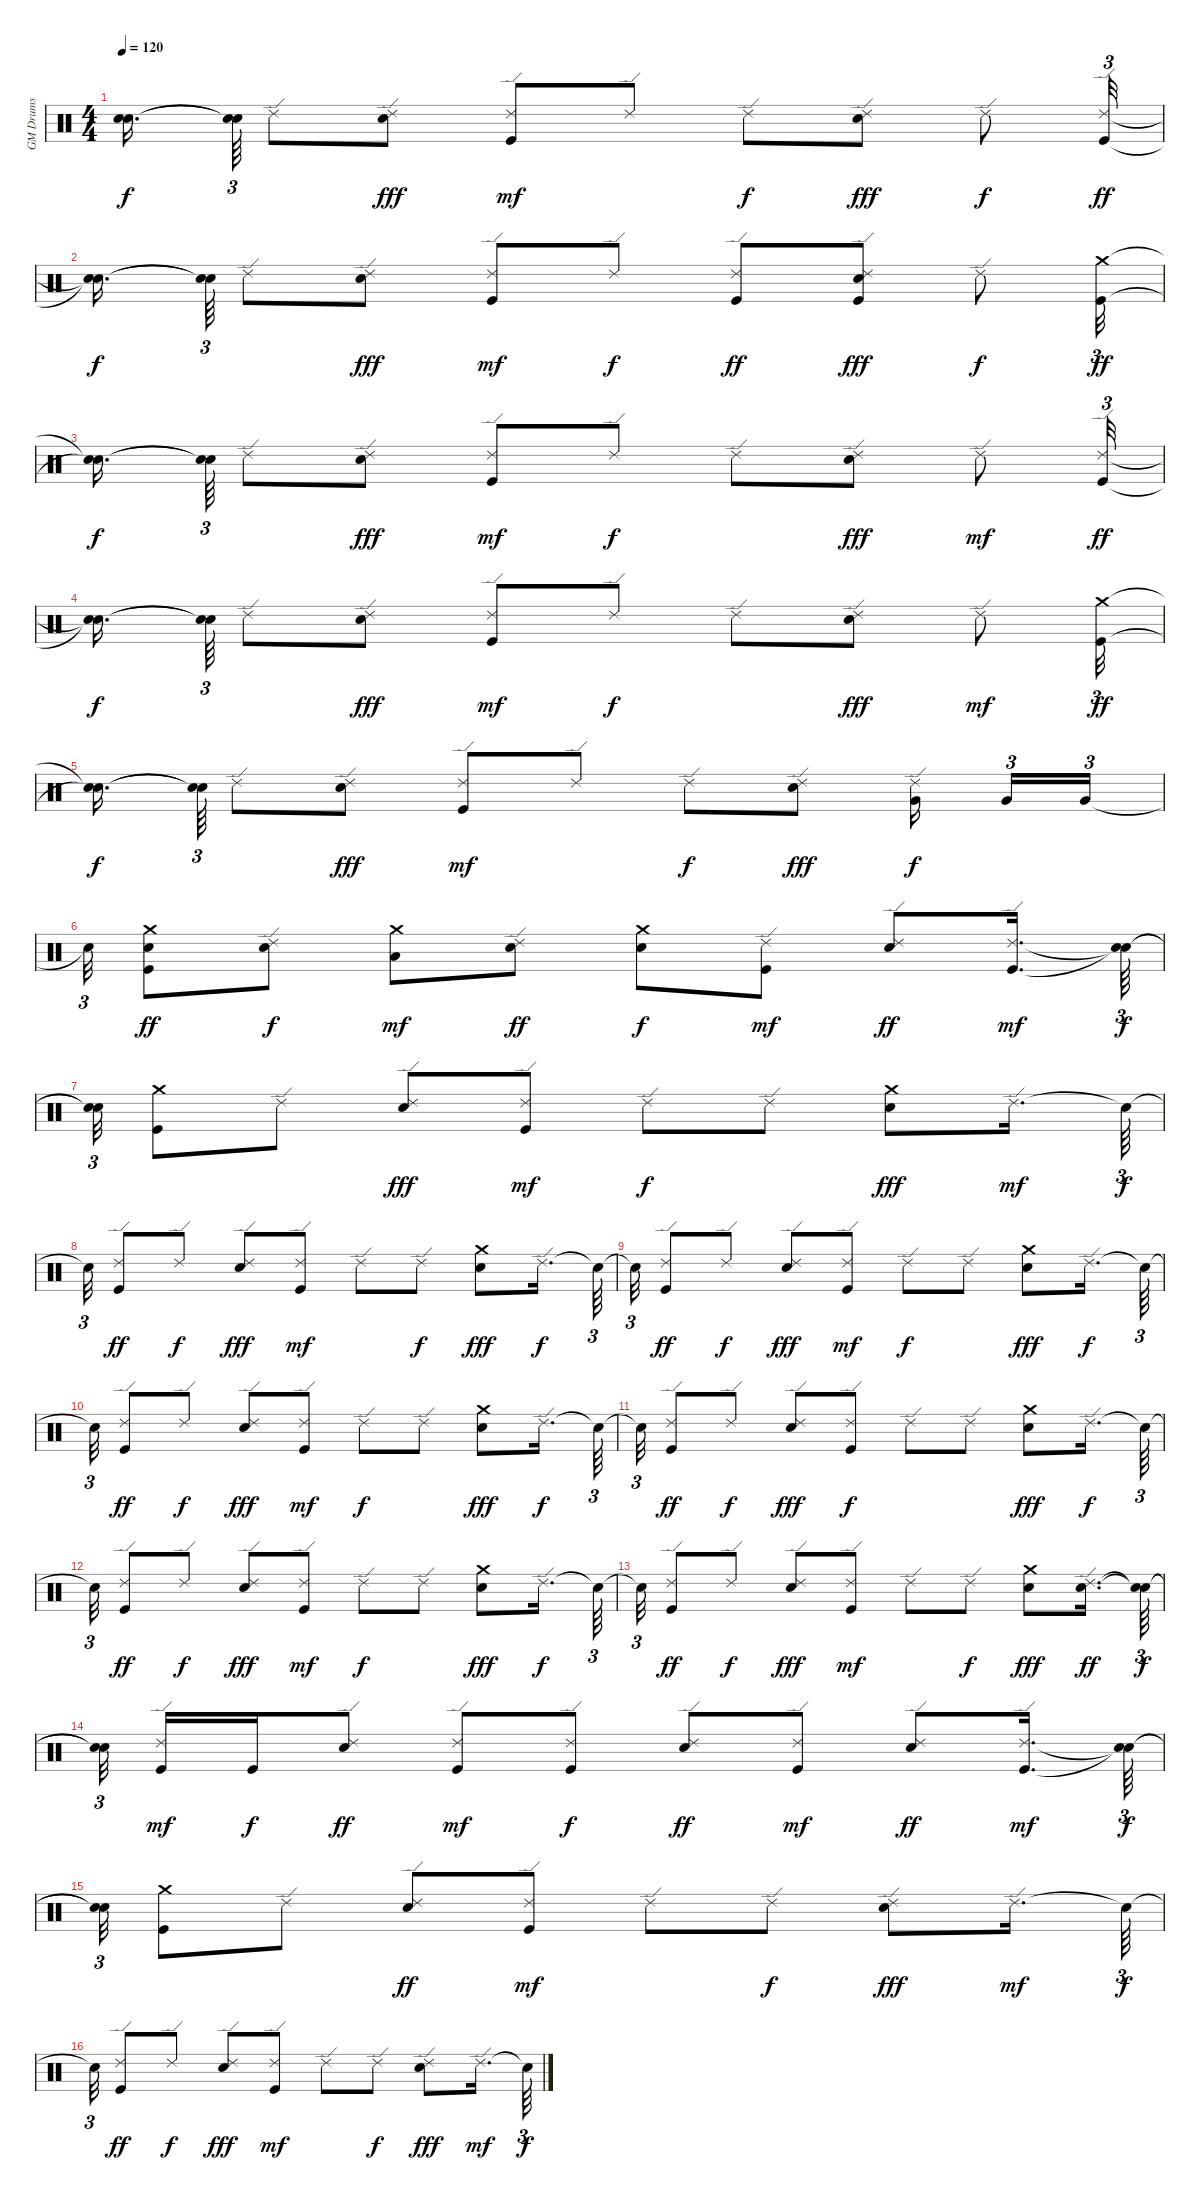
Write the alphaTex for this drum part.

\track ("GM Drums" "GM Drums") {instrument percussion}
\staff {score}
\articulation defaults
\ts (4 4)
\tempo 120
\clef neutral
\ks c
("Snare (hit)"{t} "Snare (hit)"{t}).16{d dy f} ("Snare (hit)"{t} "Snare (hit)"{t}).64{tu (3 2)} "Ride (edge) 2".8 ("Snare (hit) 2" "Ride (edge) 2").8{dy fff} ("Kick (hit)" "Ride (edge) 2").8{dy mf} "Ride (edge) 2".8 "Ride (edge) 2".8{dy f} ("Snare (hit) 2" "Ride (edge) 2").8{dy fff} "Ride (edge) 2".8{dy f} ("Kick (hit)" "Ride (edge) 2").32{tu (3 2) dy ff} |
("Snare (hit)"{t} "Snare (hit)"{t}).16{d dy f} ("Snare (hit)"{t} "Snare (hit)"{t}).64{tu (3 2)} "Ride (edge) 2".8 ("Snare (hit) 2" "Ride (edge) 2").8{dy fff} ("Kick (hit)" "Ride (edge) 2").8{dy mf} "Ride (edge) 2".8{dy f} ("Kick (hit)" "Ride (edge) 2").8{dy ff} ("Kick (hit)" "Snare (hit) 2" "Ride (edge) 2").8{dy fff} "Ride (edge) 2".8{dy f} ("Kick (hit)" "Crash medium (hit)").32{tu (3 2) dy ff} |
("Snare (hit)"{t} "Snare (hit)"{t}).16{d dy f} ("Snare (hit)"{t} "Snare (hit)"{t}).64{tu (3 2)} "Ride (edge) 2".8 ("Snare (hit) 2" "Ride (edge) 2").8{dy fff} ("Kick (hit)" "Ride (edge) 2").8{dy mf} "Ride (edge) 2".8{dy f} "Ride (edge) 2".8 ("Snare (hit) 2" "Ride (edge) 2").8{dy fff} "Ride (edge) 2".8{dy mf} ("Kick (hit)" "Ride (edge) 2").32{tu (3 2) dy ff} |
("Snare (hit)"{t} "Snare (hit)"{t}).16{d dy f} ("Snare (hit)"{t} "Snare (hit)"{t}).64{tu (3 2)} "Ride (edge) 2".8 ("Snare (hit) 2" "Ride (edge) 2").8{dy fff} ("Kick (hit)" "Ride (edge) 2").8{dy mf} "Ride (edge) 2".8{dy f} "Ride (edge) 2".8 ("Snare (hit) 2" "Ride (edge) 2").8{dy fff} "Ride (edge) 2".8{dy mf} ("Kick (hit)" "Crash medium (hit)").32{tu (3 2) dy ff} |
("Snare (hit)"{t} "Snare (hit)"{t}).16{d dy f} ("Snare (hit)"{t} "Snare (hit)"{t}).64{tu (3 2)} "Ride (edge) 2".8 ("Snare (hit) 2" "Ride (edge) 2").8{dy fff} ("Kick (hit)" "Ride (edge) 2").8{dy mf} "Ride (edge) 2".8 "Ride (edge) 2".8{dy f} ("Snare (hit) 2" "Ride (edge) 2").8{dy fff} ("Very Low Tom (hit)" "Ride (edge) 2").16{dy f} "Very Low Tom (hit)".16{tu (3 2)} "Very Low Tom (hit)".16{tu (3 2)} |
"Snare (hit)"{t}.32{tu (3 2)} ("Kick (hit)" "Snare (hit) 2" "Crash medium (hit)").8{dy ff} ("Snare (hit) 2" "Ride (edge) 2").8{dy f} ("Low Floor Tom (hit)" "Crash medium (hit)").8{dy mf} ("Snare (hit) 2" "Ride (edge) 2").8{dy ff} ("Snare (hit) 2" "Crash medium (hit)").8{dy f} ("Kick (hit)" "Ride (edge) 2").8{dy mf} ("Snare (hit) 2" "Ride (edge) 2").8{dy ff} ("Kick (hit)" "Ride (edge) 2").16{d dy mf} ("Snare (hit)"{t} "Snare (hit)"{t}).64{tu (3 2) dy f} |
("Snare (hit)"{t} "Snare (hit)"{t}).32{tu (3 2)} ("Kick (hit)" "Crash medium (hit)").8 "Ride (edge) 2".8 ("Snare (hit) 2" "Ride (edge) 2").8{dy fff} ("Kick (hit)" "Ride (edge) 2").8{dy mf} "Ride (edge) 2".8{dy f} "Ride (edge) 2".8 ("Snare (hit) 2" "Crash medium (hit)").8{dy fff} "Ride (edge) 2".16{d dy mf} "Snare (hit)"{t}.64{tu (3 2) dy f} |
"Snare (hit)"{t}.32{tu (3 2)} ("Kick (hit)" "Ride (edge) 2").8{dy ff} "Ride (edge) 2".8{dy f} ("Snare (hit) 2" "Ride (edge) 2").8{dy fff} ("Kick (hit)" "Ride (edge) 2").8{dy mf} "Ride (edge) 2".8 "Ride (edge) 2".8{dy f} ("Snare (hit) 2" "Crash medium (hit)").8{dy fff} "Ride (edge) 2".16{d dy f} "Snare (hit)"{t}.64{tu (3 2)} |
"Snare (hit)"{t}.32{tu (3 2)} ("Kick (hit)" "Ride (edge) 2").8{dy ff} "Ride (edge) 2".8{dy f} ("Snare (hit) 2" "Ride (edge) 2").8{dy fff} ("Kick (hit)" "Ride (edge) 2").8{dy mf} "Ride (edge) 2".8{dy f} "Ride (edge) 2".8 ("Snare (hit) 2" "Crash medium (hit)").8{dy fff} "Ride (edge) 2".16{d dy f} "Snare (hit)"{t}.64{tu (3 2)} |
"Snare (hit)"{t}.32{tu (3 2)} ("Kick (hit)" "Ride (edge) 2").8{dy ff} "Ride (edge) 2".8{dy f} ("Snare (hit) 2" "Ride (edge) 2").8{dy fff} ("Kick (hit)" "Ride (edge) 2").8{dy mf} "Ride (edge) 2".8{dy f} "Ride (edge) 2".8 ("Snare (hit) 2" "Crash medium (hit)").8{dy fff} "Ride (edge) 2".16{d dy f} "Snare (hit)"{t}.64{tu (3 2)} |
"Snare (hit)"{t}.32{tu (3 2)} ("Kick (hit)" "Ride (edge) 2").8{dy ff} "Ride (edge) 2".8{dy f} ("Snare (hit) 2" "Ride (edge) 2").8{dy fff} ("Kick (hit)" "Ride (edge) 2").8{dy f} "Ride (edge) 2".8 "Ride (edge) 2".8 ("Snare (hit) 2" "Crash medium (hit)").8{dy fff} "Ride (edge) 2".16{d dy f} "Snare (hit)"{t}.64{tu (3 2)} |
"Snare (hit)"{t}.32{tu (3 2)} ("Kick (hit)" "Ride (edge) 2").8{dy ff} "Ride (edge) 2".8{dy f} ("Snare (hit) 2" "Ride (edge) 2").8{dy fff} ("Kick (hit)" "Ride (edge) 2").8{dy mf} "Ride (edge) 2".8{dy f} "Ride (edge) 2".8 ("Snare (hit) 2" "Crash medium (hit)").8{dy fff} "Ride (edge) 2".16{d dy f} "Snare (hit)"{t}.64{tu (3 2)} |
"Snare (hit)"{t}.32{tu (3 2)} ("Kick (hit)" "Ride (edge) 2").8{dy ff} "Ride (edge) 2".8{dy f} ("Snare (hit) 2" "Ride (edge) 2").8{dy fff} ("Kick (hit)" "Ride (edge) 2").8{dy mf} "Ride (edge) 2".8 "Ride (edge) 2".8{dy f} ("Snare (hit) 2" "Crash medium (hit)").8{dy fff} ("Snare (hit) 2" "Ride (edge) 2").16{d dy ff} ("Snare (hit)"{t} "Snare (hit)"{t}).64{tu (3 2) dy f} |
("Snare (hit)"{t} "Snare (hit)"{t}).32{tu (3 2)} ("Kick (hit)" "Ride (edge) 2").16{dy mf} "Kick (hit)".16{dy f} ("Snare (hit) 2" "Ride (edge) 2").8{dy ff} ("Kick (hit)" "Ride (edge) 2").8{dy mf} ("Kick (hit)" "Ride (edge) 2").8{dy f} ("Snare (hit) 2" "Ride (edge) 2").8{dy ff} ("Kick (hit)" "Ride (edge) 2").8{dy mf} ("Snare (hit) 2" "Ride (edge) 2").8{dy ff} ("Kick (hit)" "Ride (edge) 2").16{d dy mf} ("Snare (hit)"{t} "Snare (hit)"{t}).64{tu (3 2) dy f} |
("Snare (hit)"{t} "Snare (hit)"{t}).32{tu (3 2)} ("Kick (hit)" "Crash medium (hit)").8 "Ride (edge) 2".8 ("Snare (hit) 2" "Ride (edge) 2").8{dy ff} ("Kick (hit)" "Ride (edge) 2").8{dy mf} "Ride (edge) 2".8 "Ride (edge) 2".8{dy f} ("Snare (hit) 2" "Ride (edge) 2").8{dy fff} "Ride (edge) 2".16{d dy mf} "Snare (hit)"{t}.64{tu (3 2) dy f} |
"Snare (hit)"{t}.32{tu (3 2)} ("Kick (hit)" "Ride (edge) 2").8{dy ff} "Ride (edge) 2".8{dy f} ("Snare (hit) 2" "Ride (edge) 2").8{dy fff} ("Kick (hit)" "Ride (edge) 2").8{dy mf} "Ride (edge) 2".8 "Ride (edge) 2".8{dy f} ("Snare (hit) 2" "Ride (edge) 2").8{dy fff} "Ride (edge) 2".16{d dy mf} "Snare (hit)"{t}.64{tu (3 2) dy f}
